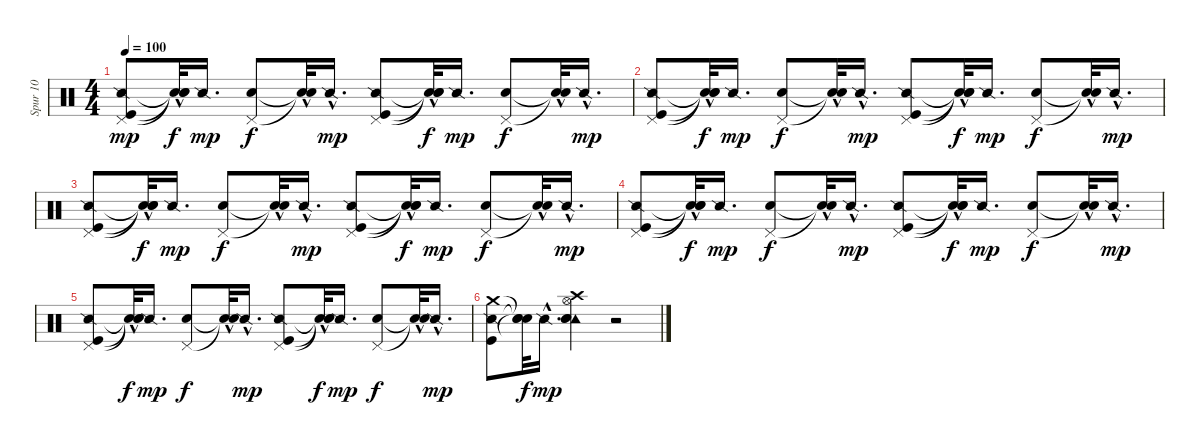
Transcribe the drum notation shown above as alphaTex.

\track ("Spur 10" "Spur 10") {instrument percussion}
\staff {score}
\articulation defaults
\ts (4 4)
\tempo 100
\clef neutral
\ks c
("Snare (side stick) 2" "Kick (hit)" "Pedal Hi-Hat (hit)").8{dy mp volume 8} ("Snare (hit)"{t} "Snare (hit)"{hac t} "Snare (hit)"{t}).32{dy f} "Snare (side stick) 2".16{d dy mp} ("Electric Snare (hit)" "Pedal Hi-Hat (hit)").8{dy f} ("Snare (hit)"{hac t} "Snare (hit)"{t}).32 "Snare (side stick) 2"{hac}.16{d dy mp volume 8} ("Snare (side stick) 2" "Kick (hit)" "Pedal Hi-Hat (hit)").8 ("Snare (hit)"{t} "Snare (hit)"{hac t} "Snare (hit)"{t}).32{dy f} "Snare (side stick) 2".16{d dy mp} ("Electric Snare (hit)" "Pedal Hi-Hat (hit)").8{dy f} ("Snare (hit)"{hac t} "Snare (hit)"{t}).32 "Snare (side stick) 2"{hac}.16{d dy mp} |
("Snare (side stick) 2" "Kick (hit)" "Pedal Hi-Hat (hit)").8{volume 7} ("Snare (hit)"{t} "Snare (hit)"{hac t} "Snare (hit)"{t}).32{dy f} "Snare (side stick) 2".16{d dy mp} ("Electric Snare (hit)" "Pedal Hi-Hat (hit)").8{dy f} ("Snare (hit)"{hac t} "Snare (hit)"{t}).32 "Snare (side stick) 2"{hac}.16{d dy mp} ("Snare (side stick) 2" "Kick (hit)" "Pedal Hi-Hat (hit)").8{volume 7} ("Snare (hit)"{t} "Snare (hit)"{hac t} "Snare (hit)"{t}).32{dy f} "Snare (side stick) 2".16{d dy mp} ("Electric Snare (hit)" "Pedal Hi-Hat (hit)").8{dy f} ("Snare (hit)"{hac t} "Snare (hit)"{t}).32 "Snare (side stick) 2"{hac}.16{d dy mp} |
("Snare (side stick) 2" "Kick (hit)" "Pedal Hi-Hat (hit)").8{volume 6} ("Snare (hit)"{t} "Snare (hit)"{hac t} "Snare (hit)"{t}).32{dy f} "Snare (side stick) 2".16{d dy mp} ("Electric Snare (hit)" "Pedal Hi-Hat (hit)").8{dy f} ("Snare (hit)"{hac t} "Snare (hit)"{t}).32 "Snare (side stick) 2"{hac}.16{d dy mp} ("Snare (side stick) 2" "Kick (hit)" "Pedal Hi-Hat (hit)").8{volume 6} ("Snare (hit)"{t} "Snare (hit)"{hac t} "Snare (hit)"{t}).32{dy f} "Snare (side stick) 2".16{d dy mp} ("Electric Snare (hit)" "Pedal Hi-Hat (hit)").8{dy f} ("Snare (hit)"{hac t} "Snare (hit)"{t}).32 "Snare (side stick) 2"{hac}.16{d dy mp} |
("Snare (side stick) 2" "Kick (hit)" "Pedal Hi-Hat (hit)").8{volume 6} ("Snare (hit)"{t} "Snare (hit)"{hac t} "Snare (hit)"{t}).32{dy f} "Snare (side stick) 2".16{d dy mp} ("Electric Snare (hit)" "Pedal Hi-Hat (hit)").8{dy f} ("Snare (hit)"{hac t} "Snare (hit)"{t}).32 "Snare (side stick) 2"{hac}.16{d dy mp} ("Snare (side stick) 2" "Kick (hit)" "Pedal Hi-Hat (hit)").8{volume 2} ("Snare (hit)"{t} "Snare (hit)"{hac t} "Snare (hit)"{t}).32{dy f} "Snare (side stick) 2".16{d dy mp} ("Electric Snare (hit)" "Pedal Hi-Hat (hit)").8{dy f} ("Snare (hit)"{hac t} "Snare (hit)"{t}).32 "Snare (side stick) 2"{hac}.16{d dy mp volume 1} |
("Snare (side stick) 2" "Kick (hit)" "Pedal Hi-Hat (hit)").8 ("Snare (hit)"{t} "Snare (hit)"{hac t} "Snare (hit)"{t}).32{dy f} "Snare (side stick) 2".16{d dy mp} ("Electric Snare (hit)" "Pedal Hi-Hat (hit)").8{dy f} ("Snare (hit)"{hac t} "Snare (hit)"{t}).32 "Snare (side stick) 2"{hac}.16{d dy mp volume 1} ("Snare (side stick) 2" "Kick (hit)" "Pedal Hi-Hat (hit)").8{volume 0} ("Snare (hit)"{t} "Snare (hit)"{hac t} "Snare (hit)"{t}).32{dy f} "Snare (side stick) 2".16{d dy mp} ("Electric Snare (hit)" "Pedal Hi-Hat (hit)").8{dy f} ("Snare (hit)"{hac t} "Snare (hit)"{t}).32 "Snare (side stick) 2"{hac}.16{d dy mp} |
("Snare (side stick) 2" "Kick (hit)" "Crash medium (hit)").8 ("Snare (hit)"{t} "Snare (hit)"{t} "Snare (hit)"{t}).32{dy f} "Snare (side stick) 2"{hac}.16{d dy mp} ("Tambourine (hit)" "Metronome (bell)" "Electric Snare (hit)" "Hi-Hat (open)" "Crash high (hit)").4 r.2
